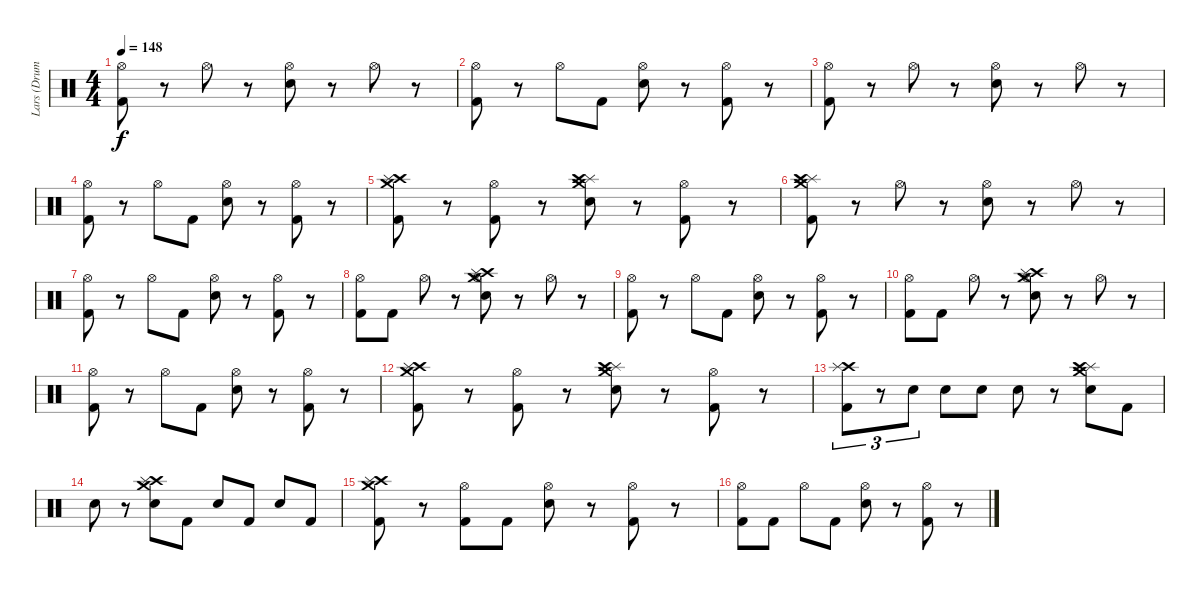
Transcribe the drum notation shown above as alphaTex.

\track ("Lars (Drums)" "Lars (Drum") {instrument percussion}
\staff {score}
\articulation defaults
\ts (4 4)
\tempo 148
\clef neutral
\ks c
("Hi-Hat (open)" "Kick (hit) 2").8{dy f} r.8 "Hi-Hat (open)".8 r.8 ("Hi-Hat (open)" "Snare (hit) 2").8 r.8 "Hi-Hat (open)".8 r.8 |
("Hi-Hat (open)" "Kick (hit) 2").8 r.8 "Hi-Hat (open)".8 "Kick (hit) 2".8 ("Hi-Hat (open)" "Snare (hit) 2").8 r.8 ("Hi-Hat (open)" "Kick (hit) 2").8 r.8 |
("Hi-Hat (open)" "Kick (hit) 2").8 r.8 "Hi-Hat (open)".8 r.8 ("Hi-Hat (open)" "Snare (hit) 2").8 r.8 "Hi-Hat (open)".8 r.8 |
("Hi-Hat (open)" "Kick (hit) 2").8 r.8 "Hi-Hat (open)".8 "Kick (hit) 2".8 ("Hi-Hat (open)" "Snare (hit) 2").8 r.8 ("Hi-Hat (open)" "Kick (hit) 2").8 r.8 |
("Crash medium (hit)" "Crash high (hit)" "Splash (hit)" "Kick (hit) 2").8 r.8 ("Kick (hit) 2" "Hi-Hat (open)").8 r.8 ("Crash medium (hit)" "Splash (hit)" "Crash high (hit)" "Snare (hit) 2").8 r.8 ("Kick (hit) 2" "Hi-Hat (open)").8 r.8 |
("Splash (hit)" "Crash medium (hit)" "Crash high (hit)" "Kick (hit) 2").8 r.8 "Hi-Hat (open)".8 r.8 ("Hi-Hat (open)" "Snare (hit) 2").8 r.8 "Hi-Hat (open)".8 r.8 |
("Hi-Hat (open)" "Kick (hit) 2").8 r.8 "Hi-Hat (open)".8 "Kick (hit) 2".8 ("Hi-Hat (open)" "Snare (hit) 2").8 r.8 ("Hi-Hat (open)" "Kick (hit) 2").8 r.8 |
("Hi-Hat (open)" "Kick (hit) 2").8 "Kick (hit) 2".8 "Hi-Hat (open)".8 r.8 ("Crash high (hit)" "Crash medium (hit)" "Splash (hit)" "Hi-Hat (open)" "Snare (hit) 2").8 r.8 "Hi-Hat (open)".8 r.8 |
("Hi-Hat (open)" "Kick (hit) 2").8 r.8 "Hi-Hat (open)".8 "Kick (hit) 2".8 ("Hi-Hat (open)" "Snare (hit) 2").8 r.8 ("Hi-Hat (open)" "Kick (hit) 2").8 r.8 |
("Hi-Hat (open)" "Kick (hit) 2").8 "Kick (hit) 2".8 "Hi-Hat (open)".8 r.8 ("Crash high (hit)" "Crash medium (hit)" "Splash (hit)" "Hi-Hat (open)" "Snare (hit) 2").8 r.8 "Hi-Hat (open)".8 r.8 |
("Hi-Hat (open)" "Kick (hit) 2").8 r.8 "Hi-Hat (open)".8 "Kick (hit) 2".8 ("Hi-Hat (open)" "Snare (hit) 2").8 r.8 ("Hi-Hat (open)" "Kick (hit) 2").8 r.8 |
("Crash medium (hit)" "Crash high (hit)" "Splash (hit)" "Kick (hit) 2").8 r.8 ("Kick (hit) 2" "Hi-Hat (open)").8 r.8 ("Crash medium (hit)" "Splash (hit)" "Crash high (hit)" "Snare (hit) 2").8 r.8 ("Kick (hit) 2" "Hi-Hat (open)").8 r.8 |
("Kick (hit) 2" "Crash high (hit)" "Splash (hit)").8{tu (3 2)} r.8{tu (3 2)} "Snare (hit) 2".8{tu (3 2)} "Snare (hit) 2".8 "Snare (hit) 2".8 "Snare (hit) 2".8 r.8 ("Crash medium (hit)" "Splash (hit)" "Crash high (hit)" "Snare (hit) 2").8 "Kick (hit) 2".8 |
"Snare (hit) 2".8 r.8 ("Crash medium (hit)" "Crash high (hit)" "Splash (hit)" "Snare (hit) 2").8 "Kick (hit) 2".8 "Snare (hit) 2".8 "Kick (hit) 2".8 "Snare (hit) 2".8 "Kick (hit) 2".8 |
("Crash high (hit)" "Splash (hit)" "Crash medium (hit)" "Kick (hit) 2").8 r.8 ("Hi-Hat (open)" "Kick (hit) 2").8 "Kick (hit) 2".8 ("Hi-Hat (open)" "Snare (hit) 2").8 r.8 ("Hi-Hat (open)" "Kick (hit) 2").8 r.8 |
("Hi-Hat (open)" "Kick (hit) 2").8 "Kick (hit) 2".8 "Hi-Hat (open)".8 "Kick (hit) 2".8 ("Hi-Hat (open)" "Snare (hit) 2").8 r.8 ("Hi-Hat (open)" "Kick (hit) 2").8 r.8
